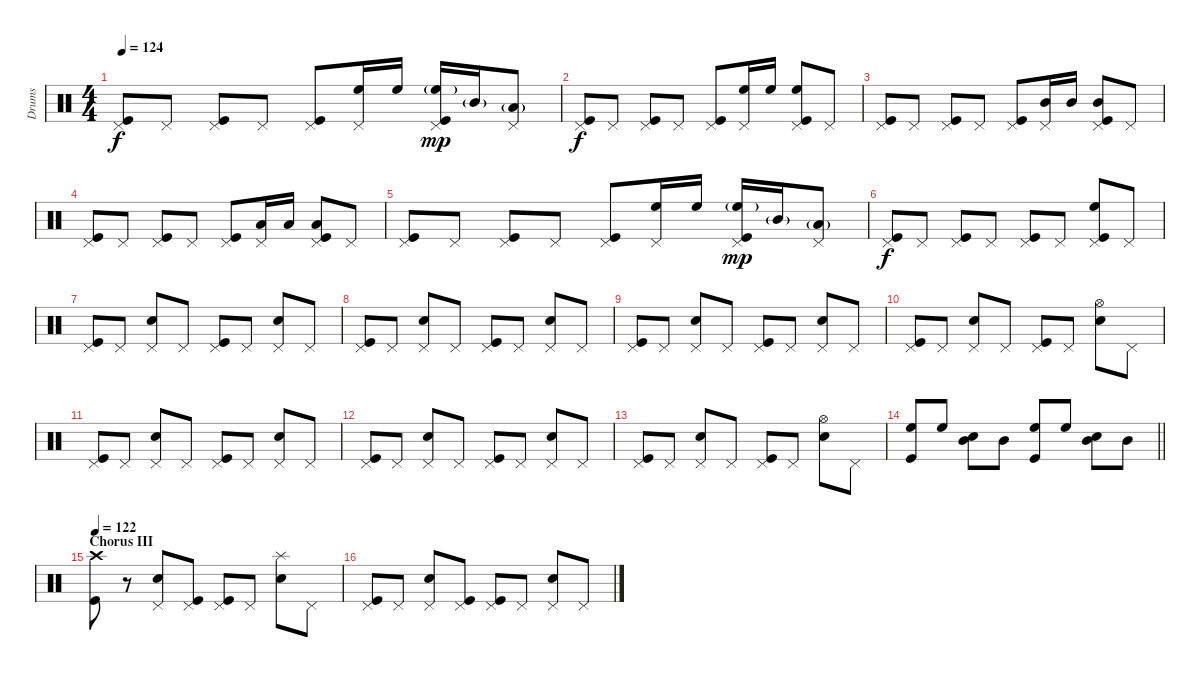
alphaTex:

\track ("Drums" "Drums") {instrument percussion}
\staff {score}
\articulation defaults
\ts (4 4)
\tempo 124
\clef neutral
\ks c
("Pedal Hi-Hat (hit)" "Kick (hit)").8{dy f} "Pedal Hi-Hat (hit)".8 ("Pedal Hi-Hat (hit)" "Kick (hit)").8 "Pedal Hi-Hat (hit)".8 ("Pedal Hi-Hat (hit)" "Kick (hit)").8 ("Pedal Hi-Hat (hit)" "High Floor Tom (hit)").16 "High Floor Tom (hit)".16 ("Pedal Hi-Hat (hit)" "High Floor Tom (hit)"{g} "Kick (hit)").16{dy mp} "Mid Tom (hit)"{g}.16 ("Pedal Hi-Hat (hit)" "Low Tom (hit)"{g}).8 |
("Pedal Hi-Hat (hit)" "Kick (hit)").8{dy f} "Pedal Hi-Hat (hit)".8 ("Pedal Hi-Hat (hit)" "Kick (hit)").8 "Pedal Hi-Hat (hit)".8 ("Pedal Hi-Hat (hit)" "Kick (hit)").8 ("Pedal Hi-Hat (hit)" "High Floor Tom (hit)").16 "High Floor Tom (hit)".16 ("Pedal Hi-Hat (hit)" "High Floor Tom (hit)" "Kick (hit)").8 "Pedal Hi-Hat (hit)".8 |
("Pedal Hi-Hat (hit)" "Kick (hit)").8 "Pedal Hi-Hat (hit)".8 ("Pedal Hi-Hat (hit)" "Kick (hit)").8 "Pedal Hi-Hat (hit)".8 ("Pedal Hi-Hat (hit)" "Kick (hit)").8 ("Pedal Hi-Hat (hit)" "Mid Tom (hit)").16 "Mid Tom (hit)".16 ("Pedal Hi-Hat (hit)" "Mid Tom (hit)" "Kick (hit)").8 "Pedal Hi-Hat (hit)".8 |
("Pedal Hi-Hat (hit)" "Kick (hit)").8 "Pedal Hi-Hat (hit)".8 ("Pedal Hi-Hat (hit)" "Kick (hit)").8 "Pedal Hi-Hat (hit)".8 ("Pedal Hi-Hat (hit)" "Kick (hit)").8 ("Pedal Hi-Hat (hit)" "Low Tom (hit)").16 "Low Tom (hit)".16 ("Pedal Hi-Hat (hit)" "Low Tom (hit)" "Kick (hit)").8 "Pedal Hi-Hat (hit)".8 |
("Pedal Hi-Hat (hit)" "Kick (hit)").8 "Pedal Hi-Hat (hit)".8 ("Pedal Hi-Hat (hit)" "Kick (hit)").8 "Pedal Hi-Hat (hit)".8 ("Pedal Hi-Hat (hit)" "Kick (hit)").8 ("Pedal Hi-Hat (hit)" "High Floor Tom (hit)").16 "High Floor Tom (hit)".16 ("Pedal Hi-Hat (hit)" "High Floor Tom (hit)"{g} "Kick (hit)").16{dy mp} "Mid Tom (hit)"{g}.16 ("Pedal Hi-Hat (hit)" "Low Tom (hit)"{g}).8 |
("Pedal Hi-Hat (hit)" "Kick (hit)").8{dy f} "Pedal Hi-Hat (hit)".8 ("Pedal Hi-Hat (hit)" "Kick (hit)").8 "Pedal Hi-Hat (hit)".8 ("Pedal Hi-Hat (hit)" "Kick (hit)").8 "Pedal Hi-Hat (hit)".8 ("Pedal Hi-Hat (hit)" "High Floor Tom (hit)" "Kick (hit)").8 "Pedal Hi-Hat (hit)".8 |
("Pedal Hi-Hat (hit)" "Kick (hit)").8 "Pedal Hi-Hat (hit)".8 ("Pedal Hi-Hat (hit)" "Electric Snare (hit)").8 "Pedal Hi-Hat (hit)".8 ("Pedal Hi-Hat (hit)" "Kick (hit)").8 "Pedal Hi-Hat (hit)".8 ("Pedal Hi-Hat (hit)" "Electric Snare (hit)").8 "Pedal Hi-Hat (hit)".8 |
("Pedal Hi-Hat (hit)" "Kick (hit)").8 "Pedal Hi-Hat (hit)".8 ("Pedal Hi-Hat (hit)" "Electric Snare (hit)").8 "Pedal Hi-Hat (hit)".8 ("Pedal Hi-Hat (hit)" "Kick (hit)").8 "Pedal Hi-Hat (hit)".8 ("Pedal Hi-Hat (hit)" "Electric Snare (hit)").8 "Pedal Hi-Hat (hit)".8 |
("Pedal Hi-Hat (hit)" "Kick (hit)").8 "Pedal Hi-Hat (hit)".8 ("Pedal Hi-Hat (hit)" "Electric Snare (hit)").8 "Pedal Hi-Hat (hit)".8 ("Pedal Hi-Hat (hit)" "Kick (hit)").8 "Pedal Hi-Hat (hit)".8 ("Pedal Hi-Hat (hit)" "Electric Snare (hit)").8 "Pedal Hi-Hat (hit)".8 |
("Pedal Hi-Hat (hit)" "Kick (hit)").8 "Pedal Hi-Hat (hit)".8 ("Pedal Hi-Hat (hit)" "Electric Snare (hit)").8 "Pedal Hi-Hat (hit)".8 ("Pedal Hi-Hat (hit)" "Kick (hit)").8 "Pedal Hi-Hat (hit)".8 ("Hi-Hat (open)" "Electric Snare (hit)").8 "Pedal Hi-Hat (hit)".8 |
("Pedal Hi-Hat (hit)" "Kick (hit)").8 "Pedal Hi-Hat (hit)".8 ("Pedal Hi-Hat (hit)" "Electric Snare (hit)").8 "Pedal Hi-Hat (hit)".8 ("Pedal Hi-Hat (hit)" "Kick (hit)").8 "Pedal Hi-Hat (hit)".8 ("Pedal Hi-Hat (hit)" "Electric Snare (hit)").8 "Pedal Hi-Hat (hit)".8 |
("Pedal Hi-Hat (hit)" "Kick (hit)").8 "Pedal Hi-Hat (hit)".8 ("Pedal Hi-Hat (hit)" "Electric Snare (hit)").8 "Pedal Hi-Hat (hit)".8 ("Pedal Hi-Hat (hit)" "Kick (hit)").8 "Pedal Hi-Hat (hit)".8 ("Pedal Hi-Hat (hit)" "Electric Snare (hit)").8 "Pedal Hi-Hat (hit)".8 |
("Pedal Hi-Hat (hit)" "Kick (hit)").8 "Pedal Hi-Hat (hit)".8 ("Pedal Hi-Hat (hit)" "Electric Snare (hit)").8 "Pedal Hi-Hat (hit)".8 ("Pedal Hi-Hat (hit)" "Kick (hit)").8 "Pedal Hi-Hat (hit)".8 ("Hi-Hat (open)" "Electric Snare (hit)").8 "Pedal Hi-Hat (hit)".8 |
\barLineRight lightlight
("High Floor Tom (hit)" "Kick (hit)").8 "High Floor Tom (hit)".8 ("Electric Snare (hit)" "Mid Tom (hit)").8 "Mid Tom (hit)".8 ("High Floor Tom (hit)" "Kick (hit)").8 "High Floor Tom (hit)".8 ("Electric Snare (hit)" "Mid Tom (hit)").8 "Mid Tom (hit)".8 |
\section ("" "Chorus III")
\tempo 122
("Crash high (hit)" "Kick (hit)").8 r.8 ("Pedal Hi-Hat (hit)" "Electric Snare (hit)").8 ("Pedal Hi-Hat (hit)" "Kick (hit)").8 ("Pedal Hi-Hat (hit)" "Kick (hit)").8 "Pedal Hi-Hat (hit)".8 ("Splash (hit)" "Electric Snare (hit)").8 "Pedal Hi-Hat (hit)".8 |
("Pedal Hi-Hat (hit)" "Kick (hit)").8 "Pedal Hi-Hat (hit)".8 ("Pedal Hi-Hat (hit)" "Electric Snare (hit)").8 ("Pedal Hi-Hat (hit)" "Kick (hit)").8 ("Pedal Hi-Hat (hit)" "Kick (hit)").8 "Pedal Hi-Hat (hit)".8 ("Pedal Hi-Hat (hit)" "Electric Snare (hit)").8 "Pedal Hi-Hat (hit)".8
